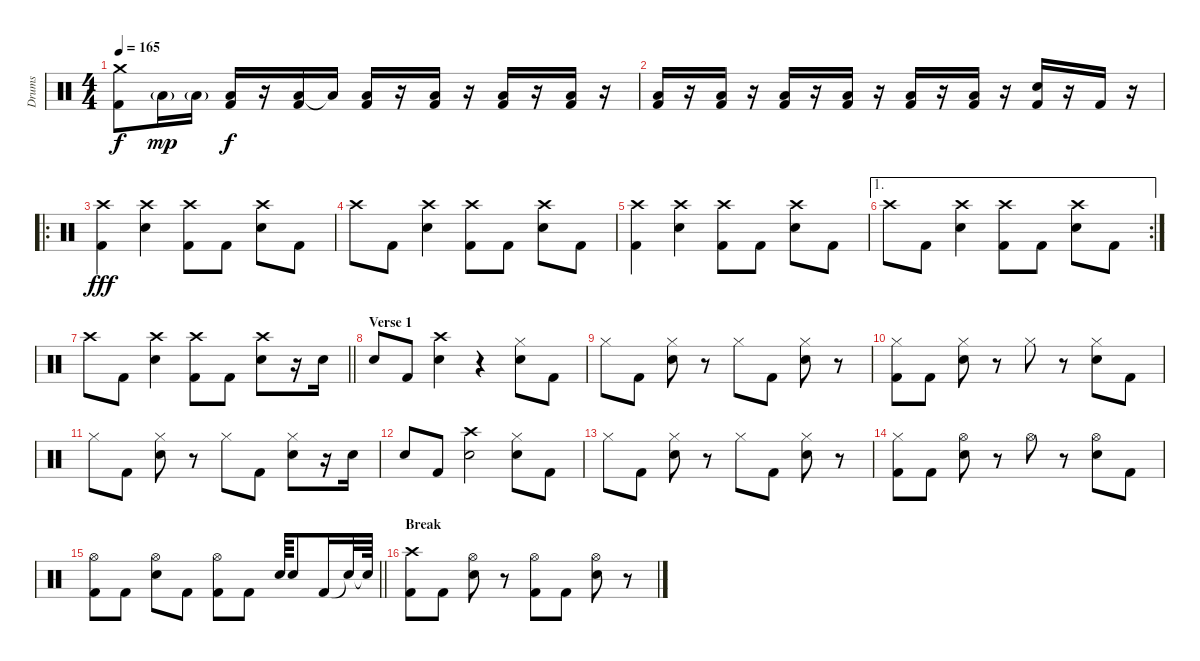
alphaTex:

\track ("Drums" "Drums") {instrument percussion}
\staff {score}
\articulation defaults
\ts (4 4)
\tempo 165
\clef neutral
\ks c
("Crash medium (hit)" "Kick (hit) 2").8{dy f} "Low Tom (hit)"{g}.16{dy mp} "Low Tom (hit)"{g}.16 ("Low Tom (hit)" "Kick (hit) 2").16{dy f} r.16 ("Low Tom (hit)" "Kick (hit) 2").16 "Low Tom (hit)"{t}.16 ("Low Tom (hit)" "Kick (hit) 2").16 r.16 ("Low Tom (hit)" "Kick (hit) 2").16 r.16 ("Low Tom (hit)" "Kick (hit) 2").16 r.16 ("Low Tom (hit)" "Kick (hit) 2").16 r.16 |
("Low Tom (hit)" "Kick (hit) 2").16 r.16 ("Low Tom (hit)" "Kick (hit) 2").16 r.16 ("Low Tom (hit)" "Kick (hit) 2").16 r.16 ("Low Tom (hit)" "Kick (hit) 2").16 r.16 ("Low Tom (hit)" "Kick (hit) 2").16 r.16 ("Low Tom (hit)" "Kick (hit) 2").16 r.16 ("Electric Snare (hit)" "Kick (hit) 2").16 r.16 "Kick (hit) 2".16 r.16 |
\ro
("Crash high (hit)" "Kick (hit) 2").4{dy fff} ("Crash high (hit)" "Electric Snare (hit)").4 ("Crash high (hit)" "Kick (hit) 2").8 "Kick (hit) 2".8 ("Crash high (hit)" "Electric Snare (hit)").8 "Kick (hit) 2".8 |
"Crash high (hit)".8 "Kick (hit) 2".8 ("Crash high (hit)" "Electric Snare (hit)").4 ("Crash high (hit)" "Kick (hit) 2").8 "Kick (hit) 2".8 ("Crash high (hit)" "Electric Snare (hit)").8 "Kick (hit) 2".8 |
("Crash high (hit)" "Kick (hit) 2").4 ("Crash high (hit)" "Electric Snare (hit)").4 ("Crash high (hit)" "Kick (hit) 2").8 "Kick (hit) 2".8 ("Crash high (hit)" "Electric Snare (hit)").8 "Kick (hit) 2".8 |
\ae 1
\rc 2 "Crash high (hit)".8 "Kick (hit) 2".8
("Crash high (hit)" "Electric Snare (hit)").4 ("Crash high (hit)" "Kick (hit) 2").8 "Kick (hit) 2".8 ("Crash high (hit)" "Electric Snare (hit)").8 "Kick (hit) 2".8 |
\barLineRight lightlight "Crash high (hit)".8 "Kick (hit) 2".8
("Crash high (hit)" "Electric Snare (hit)").4 ("Crash high (hit)" "Kick (hit) 2").8 "Kick (hit) 2".8 ("Crash high (hit)" "Electric Snare (hit)").8 r.16 "Electric Snare (hit)".16 |
\section ("" "Verse 1")
"Electric Snare (hit)".8 "Kick (hit) 2".8 ("Crash high (hit)" "Electric Snare (hit)").4 r.4 ("Hi-Hat (closed)" "Electric Snare (hit)").8 "Kick (hit) 2".8 |
"Hi-Hat (closed)".8 "Kick (hit) 2".8 ("Hi-Hat (closed)" "Electric Snare (hit)").8 r.8 "Hi-Hat (closed)".8 "Kick (hit) 2".8 ("Hi-Hat (closed)" "Electric Snare (hit)").8 r.8 |
("Hi-Hat (closed)" "Kick (hit) 2").8 "Kick (hit) 2".8 ("Hi-Hat (closed)" "Electric Snare (hit)").8 r.8 "Hi-Hat (closed)".8 r.8 ("Hi-Hat (closed)" "Electric Snare (hit)").8 "Kick (hit) 2".8 |
"Hi-Hat (closed)".8 "Kick (hit) 2".8 ("Hi-Hat (closed)" "Electric Snare (hit)").8 r.8 "Hi-Hat (closed)".8 "Kick (hit) 2".8 ("Hi-Hat (closed)" "Electric Snare (hit)").8 r.16 "Electric Snare (hit)".16 |
"Electric Snare (hit)".8 "Kick (hit) 2".8 ("Crash high (hit)" "Electric Snare (hit)").2 ("Hi-Hat (closed)" "Electric Snare (hit)").8 "Kick (hit) 2".8 |
"Hi-Hat (closed)".8 "Kick (hit) 2".8 ("Hi-Hat (closed)" "Electric Snare (hit)").8 r.8 "Hi-Hat (closed)".8 "Kick (hit) 2".8 ("Hi-Hat (closed)" "Electric Snare (hit)").8 r.8 |
("Hi-Hat (closed)" "Kick (hit) 2").8 "Kick (hit) 2".8 ("Hi-Hat (open)" "Electric Snare (hit)").8 r.8 "Hi-Hat (open)".8 r.8 ("Hi-Hat (open)" "Electric Snare (hit)").8 "Kick (hit) 2".8 |
\barLineRight lightlight
("Hi-Hat (open)" "Kick (hit) 2").8 "Kick (hit) 2".8 ("Hi-Hat (open)" "Electric Snare (hit)").8 "Kick (hit) 2".8 ("Hi-Hat (open)" "Kick (hit) 2").8 "Kick (hit) 2".8 "Electric Snare (hit)".64 "Electric Snare (hit)".8 "Kick (hit) 2".16 "Snare (hit)"{t}.32 "Snare (hit)"{t}.64 |
\section ("" "Break")
("Crash high (hit)" "Kick (hit) 2").8 "Kick (hit) 2".8 ("Hi-Hat (open)" "Electric Snare (hit)").8 r.8 ("Hi-Hat (open)" "Kick (hit) 2").8 "Kick (hit) 2".8 ("Hi-Hat (open)" "Electric Snare (hit)").8 r.8
